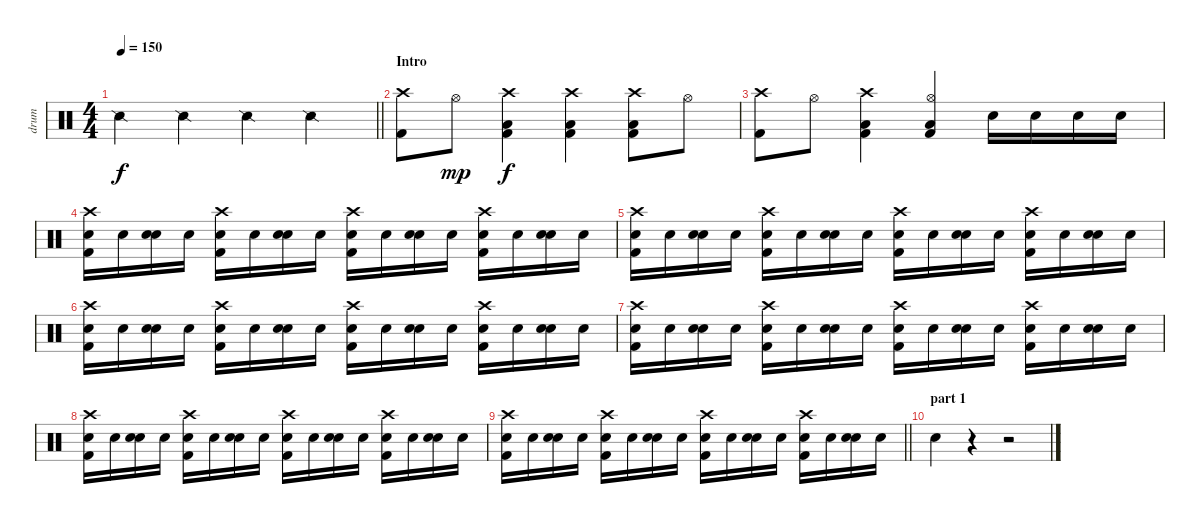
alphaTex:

\track ("drum" "drum") {instrument percussion}
\staff {score}
\articulation defaults
\ts (4 4)
\tempo 150
\clef neutral
\barLineRight lightlight
\ks c "Snare (side stick) 2".4{dy f} "Snare (side stick) 2".4 "Snare (side stick) 2".4 "Snare (side stick) 2".4
|
\section ("" "Intro")
("Crash high (hit)" "Kick (hit) 2").8 "Hi-Hat (open)".8{dy mp} ("Crash high (hit)" "Low Floor Tom (hit)" "Kick (hit) 2").4{dy f} ("Crash high (hit)" "Low Floor Tom (hit)" "Kick (hit) 2").4 ("Crash high (hit)" "Low Floor Tom (hit)" "Kick (hit) 2").8 "Hi-Hat (open)".8 |
("Crash high (hit)" "Kick (hit) 2").8 "Hi-Hat (open)".8 ("Crash high (hit)" "Low Floor Tom (hit)" "Kick (hit) 2").4 ("Hi-Hat (open)" "Low Floor Tom (hit)" "Kick (hit) 2").4 "Snare (hit) 2".16 "Snare (hit) 2".16 "Snare (hit) 2".16 "Snare (hit) 2".16 |
("Crash high (hit)" "Snare (hit) 2" "Kick (hit) 2").16 "Snare (hit) 2".16 ("Snare (hit) 2" "Snare (hit) 2").16 "Snare (hit) 2".16 ("Crash high (hit)" "Snare (hit) 2" "Kick (hit) 2").16 "Snare (hit) 2".16 ("Snare (hit) 2" "Snare (hit) 2").16 "Snare (hit) 2".16 ("Crash high (hit)" "Snare (hit) 2" "Kick (hit) 2").16 "Snare (hit) 2".16 ("Snare (hit) 2" "Snare (hit) 2").16 "Snare (hit) 2".16 ("Crash high (hit)" "Snare (hit) 2" "Kick (hit) 2").16 "Snare (hit) 2".16 ("Snare (hit) 2" "Snare (hit) 2").16 "Snare (hit) 2".16 |
("Crash high (hit)" "Snare (hit) 2" "Kick (hit) 2").16 "Snare (hit) 2".16 ("Snare (hit) 2" "Snare (hit) 2").16 "Snare (hit) 2".16 ("Crash high (hit)" "Snare (hit) 2" "Kick (hit) 2").16 "Snare (hit) 2".16 ("Snare (hit) 2" "Snare (hit) 2").16 "Snare (hit) 2".16 ("Crash high (hit)" "Snare (hit) 2" "Kick (hit) 2").16 "Snare (hit) 2".16 ("Snare (hit) 2" "Snare (hit) 2").16 "Snare (hit) 2".16 ("Crash high (hit)" "Snare (hit) 2" "Kick (hit) 2").16 "Snare (hit) 2".16 ("Snare (hit) 2" "Snare (hit) 2").16 "Snare (hit) 2".16 |
("Crash high (hit)" "Snare (hit) 2" "Kick (hit) 2").16 "Snare (hit) 2".16 ("Snare (hit) 2" "Snare (hit) 2").16 "Snare (hit) 2".16 ("Crash high (hit)" "Snare (hit) 2" "Kick (hit) 2").16 "Snare (hit) 2".16 ("Snare (hit) 2" "Snare (hit) 2").16 "Snare (hit) 2".16 ("Crash high (hit)" "Snare (hit) 2" "Kick (hit) 2").16 "Snare (hit) 2".16 ("Snare (hit) 2" "Snare (hit) 2").16 "Snare (hit) 2".16 ("Crash high (hit)" "Snare (hit) 2" "Kick (hit) 2").16 "Snare (hit) 2".16 ("Snare (hit) 2" "Snare (hit) 2").16 "Snare (hit) 2".16 |
("Crash high (hit)" "Snare (hit) 2" "Kick (hit) 2").16 "Snare (hit) 2".16 ("Snare (hit) 2" "Snare (hit) 2").16 "Snare (hit) 2".16 ("Crash high (hit)" "Snare (hit) 2" "Kick (hit) 2").16 "Snare (hit) 2".16 ("Snare (hit) 2" "Snare (hit) 2").16 "Snare (hit) 2".16 ("Crash high (hit)" "Snare (hit) 2" "Kick (hit) 2").16 "Snare (hit) 2".16 ("Snare (hit) 2" "Snare (hit) 2").16 "Snare (hit) 2".16 ("Crash high (hit)" "Snare (hit) 2" "Kick (hit) 2").16 "Snare (hit) 2".16 ("Snare (hit) 2" "Snare (hit) 2").16 "Snare (hit) 2".16 |
("Crash high (hit)" "Snare (hit) 2" "Kick (hit) 2").16 "Snare (hit) 2".16 ("Snare (hit) 2" "Snare (hit) 2").16 "Snare (hit) 2".16 ("Crash high (hit)" "Snare (hit) 2" "Kick (hit) 2").16 "Snare (hit) 2".16 ("Snare (hit) 2" "Snare (hit) 2").16 "Snare (hit) 2".16 ("Crash high (hit)" "Snare (hit) 2" "Kick (hit) 2").16 "Snare (hit) 2".16 ("Snare (hit) 2" "Snare (hit) 2").16 "Snare (hit) 2".16 ("Crash high (hit)" "Snare (hit) 2" "Kick (hit) 2").16 "Snare (hit) 2".16 ("Snare (hit) 2" "Snare (hit) 2").16 "Snare (hit) 2".16 |
\barLineRight lightlight
("Crash high (hit)" "Snare (hit) 2" "Kick (hit) 2").16 "Snare (hit) 2".16 ("Snare (hit) 2" "Snare (hit) 2").16 "Snare (hit) 2".16 ("Crash high (hit)" "Snare (hit) 2" "Kick (hit) 2").16 "Snare (hit) 2".16 ("Snare (hit) 2" "Snare (hit) 2").16 "Snare (hit) 2".16 ("Crash high (hit)" "Snare (hit) 2" "Kick (hit) 2").16 "Snare (hit) 2".16 ("Snare (hit) 2" "Snare (hit) 2").16 "Snare (hit) 2".16 ("Crash high (hit)" "Snare (hit) 2" "Kick (hit) 2").16 "Snare (hit) 2".16 ("Snare (hit) 2" "Snare (hit) 2").16 "Snare (hit) 2".16 |
\section ("" "part 1")
"Snare (hit) 2".4 r.4 r.2
